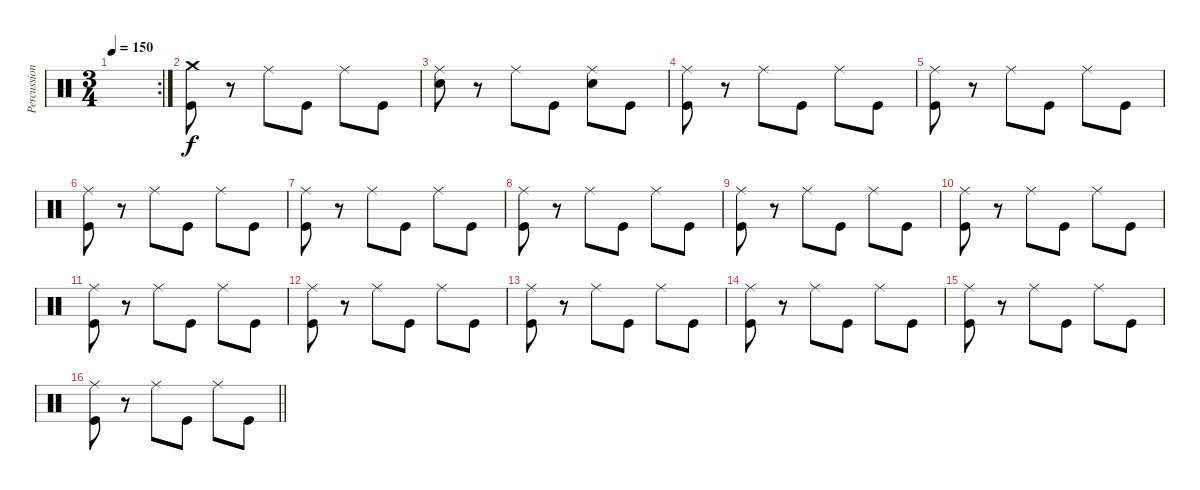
\track ("Percussion" "Percussion") {instrument percussion}
\staff {score}
\articulation defaults
\rc 2
\ts (3 4)
\tempo 150
\clef neutral
\ks c
|
("Crash medium (hit)" "Kick (hit)").8 r.8 "Ride (middle)".8 "Kick (hit)".8 "Ride (middle)".8 "Kick (hit)".8 |
("Ride (middle)" "Snare (hit) 2").8 r.8 "Ride (middle)".8 "Kick (hit)".8 ("Ride (middle)" "Snare (hit) 2").8 "Kick (hit)".8 |
("Ride (middle)" "Kick (hit)").8 r.8 "Ride (middle)".8 "Kick (hit)".8 "Ride (middle)".8 "Kick (hit)".8 |
("Ride (middle)" "Kick (hit)").8 r.8 "Ride (middle)".8 "Kick (hit)".8 "Ride (middle)".8 "Kick (hit)".8 |
("Ride (middle)" "Kick (hit)").8 r.8 "Ride (middle)".8 "Kick (hit)".8 "Ride (middle)".8 "Kick (hit)".8 |
("Ride (middle)" "Kick (hit)").8 r.8 "Ride (middle)".8 "Kick (hit)".8 "Ride (middle)".8 "Kick (hit)".8 |
("Ride (middle)" "Kick (hit)").8 r.8 "Ride (middle)".8 "Kick (hit)".8 "Ride (middle)".8 "Kick (hit)".8 |
("Ride (middle)" "Kick (hit)").8 r.8 "Ride (middle)".8 "Kick (hit)".8 "Ride (middle)".8 "Kick (hit)".8 |
("Ride (middle)" "Kick (hit)").8 r.8 "Ride (middle)".8 "Kick (hit)".8 "Ride (middle)".8 "Kick (hit)".8 |
("Ride (middle)" "Kick (hit)").8 r.8 "Ride (middle)".8 "Kick (hit)".8 "Ride (middle)".8 "Kick (hit)".8 |
("Ride (middle)" "Kick (hit)").8 r.8 "Ride (middle)".8 "Kick (hit)".8 "Ride (middle)".8 "Kick (hit)".8 |
("Ride (middle)" "Kick (hit)").8 r.8 "Ride (middle)".8 "Kick (hit)".8 "Ride (middle)".8 "Kick (hit)".8 |
("Ride (middle)" "Kick (hit)").8 r.8 "Ride (middle)".8 "Kick (hit)".8 "Ride (middle)".8 "Kick (hit)".8 |
("Ride (middle)" "Kick (hit)").8 r.8 "Ride (middle)".8 "Kick (hit)".8 "Ride (middle)".8 "Kick (hit)".8 |
\barLineRight lightlight
("Ride (middle)" "Kick (hit)").8 r.8 "Ride (middle)".8 "Kick (hit)".8 "Ride (middle)".8 "Kick (hit)".8
